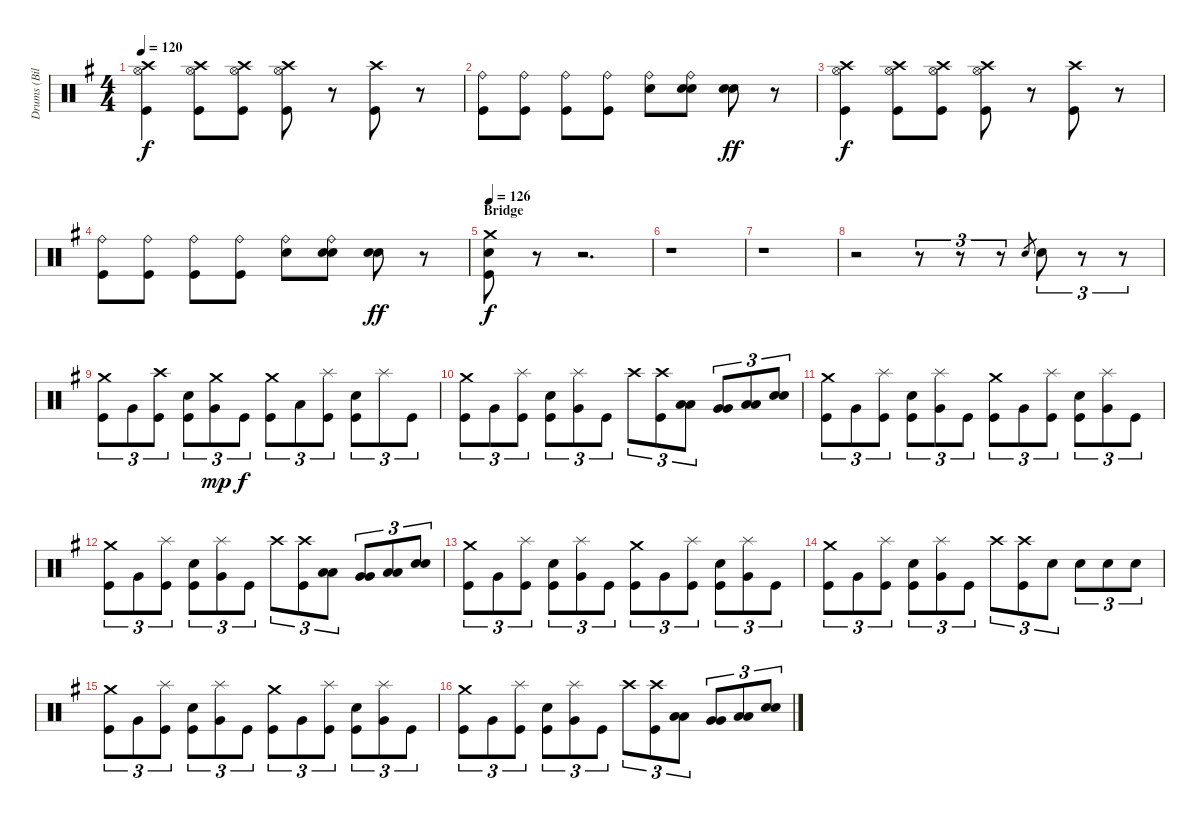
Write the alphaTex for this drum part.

\track ("Drums (Bill Ward)" "Drums (Bil") {instrument percussion}
\staff {score}
\articulation defaults
\ts (4 4)
\tempo 120
\clef neutral
\ks g
("Crash high (hit)" "Hi-Hat (open)" "Kick (hit)").4{dy f} ("Crash high (hit)" "Hi-Hat (open)" "Kick (hit)").8 ("Crash high (hit)" "Hi-Hat (open)" "Kick (hit)").8 ("Crash high (hit)" "Hi-Hat (open)" "Kick (hit)").8 r.8 ("Crash high (hit)" "Kick (hit)").8 r.8 |
("Ride (bell)" "Kick (hit)").8 ("Ride (bell)" "Kick (hit)").8 ("Ride (bell)" "Kick (hit)").8 ("Ride (bell)" "Kick (hit)").8 ("Ride (bell)" "Electric Snare (hit)").8 ("Ride (bell)" "Electric Snare (hit)" "Electric Snare (hit)").8 ("Electric Snare (hit)" "Electric Snare (hit)").8{dy ff} r.8 |
("Crash high (hit)" "Hi-Hat (open)" "Kick (hit)").4{dy f} ("Crash high (hit)" "Hi-Hat (open)" "Kick (hit)").8 ("Crash high (hit)" "Hi-Hat (open)" "Kick (hit)").8 ("Crash high (hit)" "Hi-Hat (open)" "Kick (hit)").8 r.8 ("Crash high (hit)" "Kick (hit)").8 r.8 |
("Ride (bell)" "Kick (hit)").8 ("Ride (bell)" "Kick (hit)").8 ("Ride (bell)" "Kick (hit)").8 ("Ride (bell)" "Kick (hit)").8 ("Ride (bell)" "Electric Snare (hit)").8 ("Ride (bell)" "Electric Snare (hit)" "Electric Snare (hit)").8 ("Electric Snare (hit)" "Electric Snare (hit)").8{dy ff} r.8 |
\section ("" "Bridge")
\tempo 126
("Crash medium (hit)" "Electric Snare (hit)" "Kick (hit)").8{dy f} r.8 r.2{d} |
r.1 |
r.1 |
r.2 r.8{tu (3 2)} r.8{tu (3 2)} r.8{tu (3 2)} "Electric Snare (hit)".8{gr} "Electric Snare (hit)".8{tu (3 2)} r.8{tu (3 2)} r.8{tu (3 2)} |
("Crash medium (hit)" "Kick (hit)").8{tu (3 2)} "Very Low Tom (hit)".8{tu (3 2)} ("Crash high (hit)" "Kick (hit)").8{tu (3 2)} ("Electric Snare (hit)" "Kick (hit)").8{tu (3 2)} ("Crash medium (hit)" "Very Low Tom (hit)").8{tu (3 2) dy mp} "Kick (hit)".8{tu (3 2) dy f} ("Crash medium (hit)" "Kick (hit)").8{tu (3 2)} "Low Tom (hit)".8{tu (3 2)} ("Splash (hit)" "Kick (hit)").8{tu (3 2)} ("Electric Snare (hit)" "Kick (hit)").8{tu (3 2)} "Splash (hit)".8{tu (3 2)} "Kick (hit)".8{tu (3 2)} |
("Crash medium (hit)" "Kick (hit)").8{tu (3 2)} "Very Low Tom (hit)".8{tu (3 2)} ("Splash (hit)" "Kick (hit)").8{tu (3 2)} ("Electric Snare (hit)" "Kick (hit)").8{tu (3 2)} ("Splash (hit)" "Very Low Tom (hit)").8{tu (3 2)} "Kick (hit)".8{tu (3 2)} "Crash high (hit)".8{tu (3 2)} ("Crash high (hit)" "Kick (hit)").8{tu (3 2)} ("Low Tom (hit)" "Low Tom (hit)").8{tu (3 2)} ("Very Low Tom (hit)" "Very Low Tom (hit)").8{tu (3 2)} ("Low Tom (hit)" "Low Tom (hit)").8{tu (3 2)} ("Electric Snare (hit)" "Electric Snare (hit)").8{tu (3 2)} |
("Crash medium (hit)" "Kick (hit)").8{tu (3 2)} "Very Low Tom (hit)".8{tu (3 2)} ("Splash (hit)" "Kick (hit)").8{tu (3 2)} ("Electric Snare (hit)" "Kick (hit)").8{tu (3 2)} ("Splash (hit)" "Very Low Tom (hit)").8{tu (3 2)} "Kick (hit)".8{tu (3 2)} ("Crash medium (hit)" "Kick (hit)").8{tu (3 2)} "Very Low Tom (hit)".8{tu (3 2)} ("Splash (hit)" "Kick (hit)").8{tu (3 2)} ("Electric Snare (hit)" "Kick (hit)").8{tu (3 2)} ("Splash (hit)" "Very Low Tom (hit)").8{tu (3 2)} "Kick (hit)".8{tu (3 2)} |
("Crash medium (hit)" "Kick (hit)").8{tu (3 2)} "Very Low Tom (hit)".8{tu (3 2)} ("Splash (hit)" "Kick (hit)").8{tu (3 2)} ("Electric Snare (hit)" "Kick (hit)").8{tu (3 2)} ("Splash (hit)" "Very Low Tom (hit)").8{tu (3 2)} "Kick (hit)".8{tu (3 2)} "Crash high (hit)".8{tu (3 2)} ("Crash high (hit)" "Kick (hit)").8{tu (3 2)} ("Low Tom (hit)" "Low Tom (hit)").8{tu (3 2)} ("Very Low Tom (hit)" "Very Low Tom (hit)").8{tu (3 2)} ("Low Tom (hit)" "Low Tom (hit)").8{tu (3 2)} ("Electric Snare (hit)" "Electric Snare (hit)").8{tu (3 2)} |
("Crash medium (hit)" "Kick (hit)").8{tu (3 2)} "Very Low Tom (hit)".8{tu (3 2)} ("Splash (hit)" "Kick (hit)").8{tu (3 2)} ("Electric Snare (hit)" "Kick (hit)").8{tu (3 2)} ("Splash (hit)" "Very Low Tom (hit)").8{tu (3 2)} "Kick (hit)".8{tu (3 2)} ("Crash medium (hit)" "Kick (hit)").8{tu (3 2)} "Very Low Tom (hit)".8{tu (3 2)} ("Splash (hit)" "Kick (hit)").8{tu (3 2)} ("Electric Snare (hit)" "Kick (hit)").8{tu (3 2)} ("Splash (hit)" "Very Low Tom (hit)").8{tu (3 2)} "Kick (hit)".8{tu (3 2)} |
("Crash medium (hit)" "Kick (hit)").8{tu (3 2)} "Very Low Tom (hit)".8{tu (3 2)} ("Splash (hit)" "Kick (hit)").8{tu (3 2)} ("Electric Snare (hit)" "Kick (hit)").8{tu (3 2)} ("Splash (hit)" "Very Low Tom (hit)").8{tu (3 2)} "Kick (hit)".8{tu (3 2)} "Crash high (hit)".8{tu (3 2)} ("Crash high (hit)" "Kick (hit)").8{tu (3 2)} "Electric Snare (hit)".8{tu (3 2)} "Electric Snare (hit)".8{tu (3 2)} "Electric Snare (hit)".8{tu (3 2)} "Electric Snare (hit)".8{tu (3 2)} |
("Crash medium (hit)" "Kick (hit)").8{tu (3 2)} "Very Low Tom (hit)".8{tu (3 2)} ("Splash (hit)" "Kick (hit)").8{tu (3 2)} ("Electric Snare (hit)" "Kick (hit)").8{tu (3 2)} ("Splash (hit)" "Very Low Tom (hit)").8{tu (3 2)} "Kick (hit)".8{tu (3 2)} ("Crash medium (hit)" "Kick (hit)").8{tu (3 2)} "Very Low Tom (hit)".8{tu (3 2)} ("Splash (hit)" "Kick (hit)").8{tu (3 2)} ("Electric Snare (hit)" "Kick (hit)").8{tu (3 2)} ("Splash (hit)" "Very Low Tom (hit)").8{tu (3 2)} "Kick (hit)".8{tu (3 2)} |
("Crash medium (hit)" "Kick (hit)").8{tu (3 2)} "Very Low Tom (hit)".8{tu (3 2)} ("Splash (hit)" "Kick (hit)").8{tu (3 2)} ("Electric Snare (hit)" "Kick (hit)").8{tu (3 2)} ("Splash (hit)" "Very Low Tom (hit)").8{tu (3 2)} "Kick (hit)".8{tu (3 2)} "Crash high (hit)".8{tu (3 2)} ("Crash high (hit)" "Kick (hit)").8{tu (3 2)} ("Low Tom (hit)" "Low Tom (hit)").8{tu (3 2)} ("Very Low Tom (hit)" "Very Low Tom (hit)").8{tu (3 2)} ("Low Tom (hit)" "Low Tom (hit)").8{tu (3 2)} ("Electric Snare (hit)" "Electric Snare (hit)").8{tu (3 2)}
